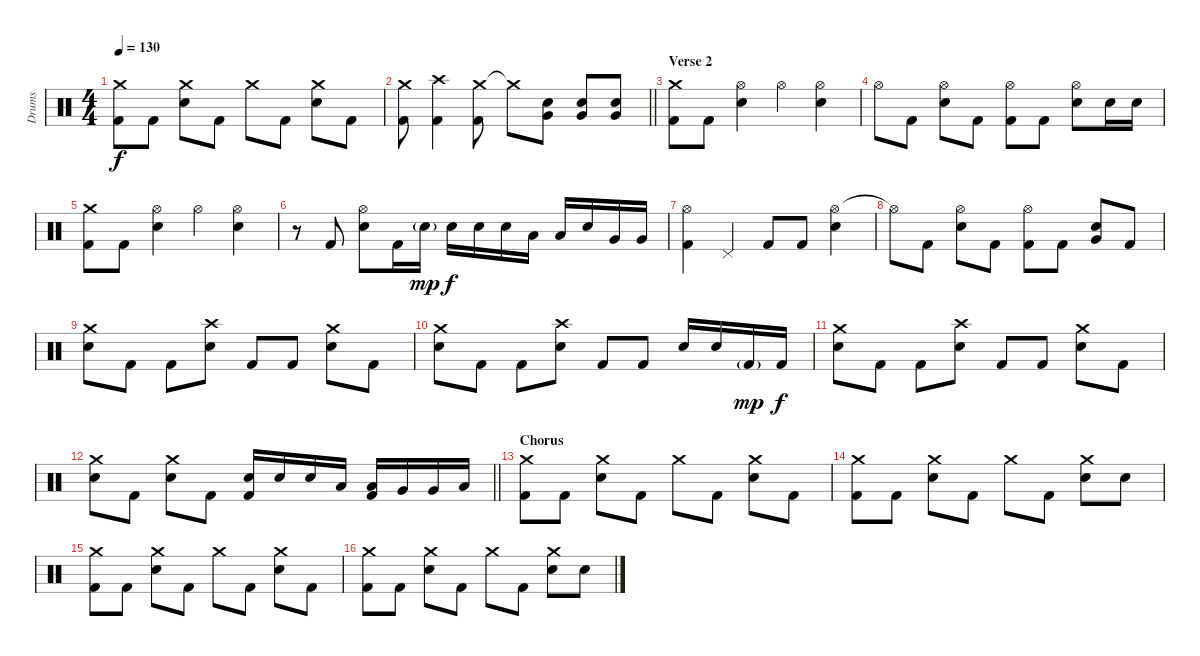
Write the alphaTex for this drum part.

\track ("Drums" "Drums") {instrument percussion}
\staff {score}
\articulation defaults
\ts (4 4)
\tempo 130
\clef neutral
\ks c
("Crash medium (hit)" "Kick (hit) 2").8{dy f} "Kick (hit) 2".8 ("Crash medium (hit)" "Electric Snare (hit)").8 "Kick (hit) 2".8 "Crash medium (hit)".8 "Kick (hit) 2".8 ("Crash medium (hit)" "Electric Snare (hit)").8 "Kick (hit) 2".8 |
\barLineRight lightlight
("Crash medium (hit)" "Kick (hit) 2").8 ("Crash high (hit)" "Kick (hit) 2").4 ("Crash medium (hit)" "Kick (hit) 2").8 "Crash medium (hit)"{t}.8 ("Very Low Tom (hit)" "Electric Snare (hit)").8 ("Very Low Tom (hit)" "Electric Snare (hit)").8 ("Very Low Tom (hit)" "Electric Snare (hit)").8 |
\section ("" "Verse 2")
("Crash medium (hit)" "Kick (hit) 2").8 "Kick (hit) 2".8 ("Hi-Hat (open)" "Electric Snare (hit)").4 "Hi-Hat (open)".4 ("Hi-Hat (open)" "Electric Snare (hit)").4 |
"Hi-Hat (open)".8 "Kick (hit) 2".8 ("Hi-Hat (open)" "Electric Snare (hit)").8 "Kick (hit) 2".8 ("Hi-Hat (open)" "Kick (hit) 2").8 "Kick (hit) 2".8 ("Hi-Hat (open)" "Electric Snare (hit)").8 "Electric Snare (hit)".16 "Electric Snare (hit)".16 |
("Crash medium (hit)" "Kick (hit) 2").8 "Kick (hit) 2".8 ("Hi-Hat (open)" "Electric Snare (hit)").4 "Hi-Hat (open)".4 ("Hi-Hat (open)" "Electric Snare (hit)").4 |
r.8 "Kick (hit) 2".8 ("Hi-Hat (open)" "Electric Snare (hit)").8 "Kick (hit) 2".16 "Electric Snare (hit)"{g}.16{dy mp} "Electric Snare (hit)".16{dy f} "Electric Snare (hit)".16 "Electric Snare (hit)".16 "Low Tom (hit)".16 "Low Tom (hit)".16 "Electric Snare (hit)".16 "Very Low Tom (hit)".16 "Very Low Tom (hit)".16 |
("Hi-Hat (open)" "Kick (hit) 2").4 "Pedal Hi-Hat (hit)".4 "Kick (hit) 2".8 "Kick (hit) 2".8 ("Hi-Hat (open)" "Electric Snare (hit)").4 |
"Hi-Hat (open)"{t}.8 "Kick (hit) 2".8 ("Hi-Hat (open)" "Electric Snare (hit)").8 "Kick (hit) 2".8 ("Hi-Hat (open)" "Kick (hit) 2").8 "Kick (hit) 2".8 ("Very Low Tom (hit)" "Electric Snare (hit)").8 "Kick (hit) 2".8 |
("Crash medium (hit)" "Electric Snare (hit)").8 "Kick (hit) 2".8 "Kick (hit) 2".8 ("Crash high (hit)" "Electric Snare (hit)").8 "Kick (hit) 2".8 "Kick (hit) 2".8 ("Crash medium (hit)" "Electric Snare (hit)").8 "Kick (hit) 2".8 |
("Crash medium (hit)" "Electric Snare (hit)").8 "Kick (hit) 2".8 "Kick (hit) 2".8 ("Crash high (hit)" "Electric Snare (hit)").8 "Kick (hit) 2".8 "Kick (hit) 2".8 "Electric Snare (hit)".16 "Electric Snare (hit)".16 "Kick (hit) 2"{g}.16{dy mp} "Kick (hit) 2".16{dy f} |
("Crash medium (hit)" "Electric Snare (hit)").8 "Kick (hit) 2".8 "Kick (hit) 2".8 ("Crash high (hit)" "Electric Snare (hit)").8 "Kick (hit) 2".8 "Kick (hit) 2".8 ("Crash medium (hit)" "Electric Snare (hit)").8 "Kick (hit) 2".8 |
\barLineRight lightlight
("Crash medium (hit)" "Electric Snare (hit)").8 "Kick (hit) 2".8 ("Crash medium (hit)" "Electric Snare (hit)").8 "Kick (hit) 2".8 ("Electric Snare (hit)" "Kick (hit) 2").16 "Electric Snare (hit)".16 "Electric Snare (hit)".16 "Low Tom (hit)".16 ("Low Tom (hit)" "Kick (hit) 2").16 "Very Low Tom (hit)".16 "Very Low Tom (hit)".16 "Low Floor Tom (hit)".16 |
\section ("" "Chorus")
("Crash medium (hit)" "Kick (hit) 2").8 "Kick (hit) 2".8 ("Crash medium (hit)" "Electric Snare (hit)").8 "Kick (hit) 2".8 "Crash medium (hit)".8 "Kick (hit) 2".8 ("Crash medium (hit)" "Electric Snare (hit)").8 "Kick (hit) 2".8 |
("Crash medium (hit)" "Kick (hit) 2").8 "Kick (hit) 2".8 ("Crash medium (hit)" "Electric Snare (hit)").8 "Kick (hit) 2".8 "Crash medium (hit)".8 "Kick (hit) 2".8 ("Crash medium (hit)" "Electric Snare (hit)").8 "Electric Snare (hit)".8 |
("Crash medium (hit)" "Kick (hit) 2").8 "Kick (hit) 2".8 ("Crash medium (hit)" "Electric Snare (hit)").8 "Kick (hit) 2".8 "Crash medium (hit)".8 "Kick (hit) 2".8 ("Crash medium (hit)" "Electric Snare (hit)").8 "Kick (hit) 2".8 |
("Crash medium (hit)" "Kick (hit) 2").8 "Kick (hit) 2".8 ("Crash medium (hit)" "Electric Snare (hit)").8 "Kick (hit) 2".8 "Crash medium (hit)".8 "Kick (hit) 2".8 ("Crash medium (hit)" "Electric Snare (hit)").8 "Electric Snare (hit)".8
